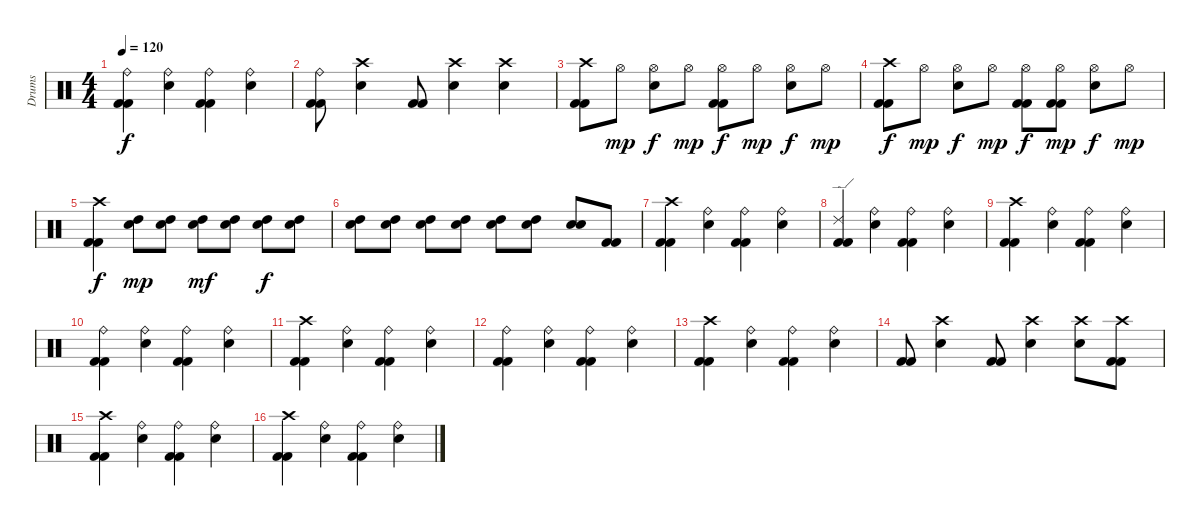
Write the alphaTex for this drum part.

\track ("Drums" "Drums") {instrument percussion}
\staff {score}
\articulation defaults
\ts (4 4)
\tempo 120
\clef neutral
\ks c
("Ride (bell)" "Kick (hit) 2" "Kick (hit) 2").4{dy f} ("Ride (bell)" "Snare (hit) 2").4 ("Ride (bell)" "Kick (hit) 2" "Kick (hit) 2").4 ("Ride (bell)" "Snare (hit) 2").4 |
("Ride (bell)" "Kick (hit) 2" "Kick (hit) 2").8 ("Crash high (hit)" "Snare (hit) 2").4 ("Kick (hit) 2" "Kick (hit) 2").8 ("Crash high (hit)" "Snare (hit) 2").4 ("Crash high (hit)" "Snare (hit) 2").4 |
("Crash high (hit)" "Kick (hit) 2" "Kick (hit) 2").8 "Hi-Hat (open)".8{dy mp} ("Hi-Hat (open)" "Snare (hit) 2").8{dy f} "Hi-Hat (open)".8{dy mp} ("Hi-Hat (open)" "Kick (hit) 2" "Kick (hit) 2").8{dy f} "Hi-Hat (open)".8{dy mp} ("Hi-Hat (open)" "Snare (hit) 2").8{dy f} "Hi-Hat (open)".8{dy mp} |
("Crash high (hit)" "Kick (hit) 2" "Kick (hit) 2").8{dy f} "Hi-Hat (open)".8{dy mp} ("Hi-Hat (open)" "Snare (hit) 2").8{dy f} "Hi-Hat (open)".8{dy mp} ("Hi-Hat (open)" "Kick (hit) 2" "Kick (hit) 2").8{dy f} ("Hi-Hat (open)" "Kick (hit) 2" "Kick (hit) 2").8{dy mp} ("Hi-Hat (open)" "Snare (hit) 2").8{dy f} "Hi-Hat (open)".8{dy mp} |
("Crash high (hit)" "Kick (hit) 2" "Kick (hit) 2").4{dy f} ("Snare (hit) 2" "High Tom (hit)").8{dy mp} ("Snare (hit) 2" "High Tom (hit)").8 ("Snare (hit) 2" "High Tom (hit)").8{dy mf} ("Snare (hit) 2" "High Tom (hit)").8 ("Snare (hit) 2" "High Tom (hit)").8{dy f} ("Snare (hit) 2" "High Tom (hit)").8 |
("Snare (hit) 2" "High Tom (hit)").8 ("Snare (hit) 2" "High Tom (hit)").8 ("Snare (hit) 2" "High Tom (hit)").8 ("Snare (hit) 2" "High Tom (hit)").8 ("Snare (hit) 2" "High Tom (hit)").8 ("Snare (hit) 2" "High Tom (hit)").8 ("Snare (hit) 2" "Snare (hit) 2").8 ("Kick (hit) 2" "Kick (hit) 2").8 |
("Crash high (hit)" "Kick (hit) 2" "Kick (hit) 2").4 ("Ride (bell)" "Snare (hit) 2").4 ("Ride (bell)" "Kick (hit) 2" "Kick (hit) 2").4 ("Ride (bell)" "Snare (hit) 2").4 |
("Ride (edge) 2" "Kick (hit) 2" "Kick (hit) 2").4 ("Ride (bell)" "Snare (hit) 2").4 ("Ride (bell)" "Kick (hit) 2" "Kick (hit) 2").4 ("Ride (bell)" "Snare (hit) 2").4 |
("Crash high (hit)" "Kick (hit) 2" "Kick (hit) 2").4 ("Ride (bell)" "Snare (hit) 2").4 ("Ride (bell)" "Kick (hit) 2" "Kick (hit) 2").4 ("Ride (bell)" "Snare (hit) 2").4 |
("Ride (bell)" "Kick (hit) 2" "Kick (hit) 2").4 ("Ride (bell)" "Snare (hit) 2").4 ("Ride (bell)" "Kick (hit) 2" "Kick (hit) 2").4 ("Ride (bell)" "Snare (hit) 2").4 |
("Crash high (hit)" "Kick (hit) 2" "Kick (hit) 2").4 ("Ride (bell)" "Snare (hit) 2").4 ("Ride (bell)" "Kick (hit) 2" "Kick (hit) 2").4 ("Ride (bell)" "Snare (hit) 2").4 |
("Ride (bell)" "Kick (hit) 2" "Kick (hit) 2").4 ("Ride (bell)" "Snare (hit) 2").4 ("Ride (bell)" "Kick (hit) 2" "Kick (hit) 2").4 ("Ride (bell)" "Snare (hit) 2").4 |
("Crash high (hit)" "Kick (hit) 2" "Kick (hit) 2").4 ("Ride (bell)" "Snare (hit) 2").4 ("Ride (bell)" "Kick (hit) 2" "Kick (hit) 2").4 ("Ride (bell)" "Snare (hit) 2").4 |
("Kick (hit) 2" "Kick (hit) 2").8 ("Crash high (hit)" "Snare (hit) 2").4 ("Kick (hit) 2" "Kick (hit) 2").8 ("Crash high (hit)" "Snare (hit) 2").4 ("Crash high (hit)" "Snare (hit) 2").8 ("Crash high (hit)" "Kick (hit) 2" "Kick (hit) 2").8 |
("Crash high (hit)" "Kick (hit) 2" "Kick (hit) 2").4 ("Ride (bell)" "Snare (hit) 2").4 ("Ride (bell)" "Kick (hit) 2" "Kick (hit) 2").4 ("Ride (bell)" "Snare (hit) 2").4 |
("Crash high (hit)" "Kick (hit) 2" "Kick (hit) 2").4 ("Ride (bell)" "Snare (hit) 2").4 ("Ride (bell)" "Kick (hit) 2" "Kick (hit) 2").4 ("Ride (bell)" "Snare (hit) 2").4
